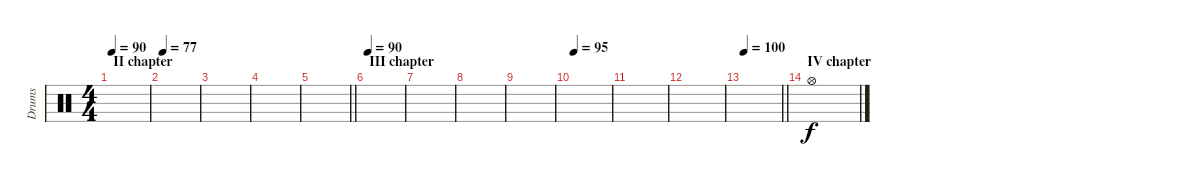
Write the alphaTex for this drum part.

\track ("Drums" "Drums") {instrument percussion}
\staff {score}
\articulation defaults
\ts (4 4)
\section ("" "II chapter")
\tempo 90
\clef neutral
\ks c
|
\tempo 77
|
|
|
\barLineRight lightlight
|
\section ("" "III chapter")
\tempo 90
|
|
|
|
\tempo 95
|
|
|
\tempo 100
\barLineRight lightlight
|
\section ("" "IV chapter")
"Hi-Hat (open)".1
